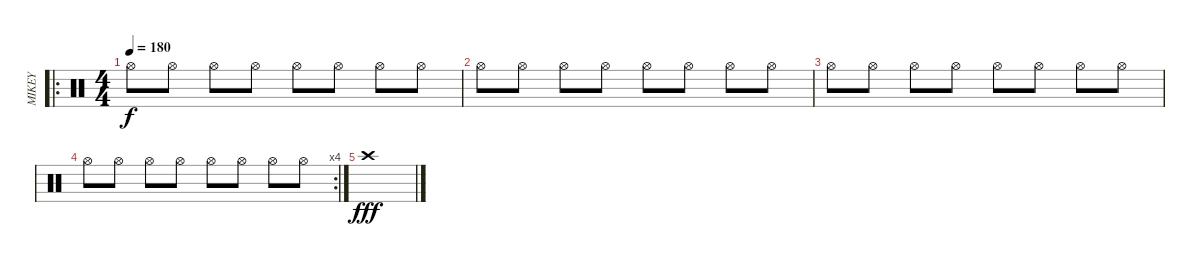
\track ("MIKEY" "MIKEY") {instrument percussion}
\staff {score}
\articulation defaults
\ro
\ts (4 4)
\tempo 180
\clef neutral
\ks c "Hi-Hat (open)".8{dy f} "Hi-Hat (open)".8 "Hi-Hat (open)".8 "Hi-Hat (open)".8 "Hi-Hat (open)".8 "Hi-Hat (open)".8 "Hi-Hat (open)".8 "Hi-Hat (open)".8
|
"Hi-Hat (open)".8 "Hi-Hat (open)".8 "Hi-Hat (open)".8 "Hi-Hat (open)".8 "Hi-Hat (open)".8 "Hi-Hat (open)".8 "Hi-Hat (open)".8 "Hi-Hat (open)".8 |
"Hi-Hat (open)".8 "Hi-Hat (open)".8 "Hi-Hat (open)".8 "Hi-Hat (open)".8 "Hi-Hat (open)".8 "Hi-Hat (open)".8 "Hi-Hat (open)".8 "Hi-Hat (open)".8 |
\rc 4 "Hi-Hat (open)".8 "Hi-Hat (open)".8 "Hi-Hat (open)".8 "Hi-Hat (open)".8 "Hi-Hat (open)".8 "Hi-Hat (open)".8 "Hi-Hat (open)".8 "Hi-Hat (open)".8
|
"Crash high (hit)".1{dy fff}
